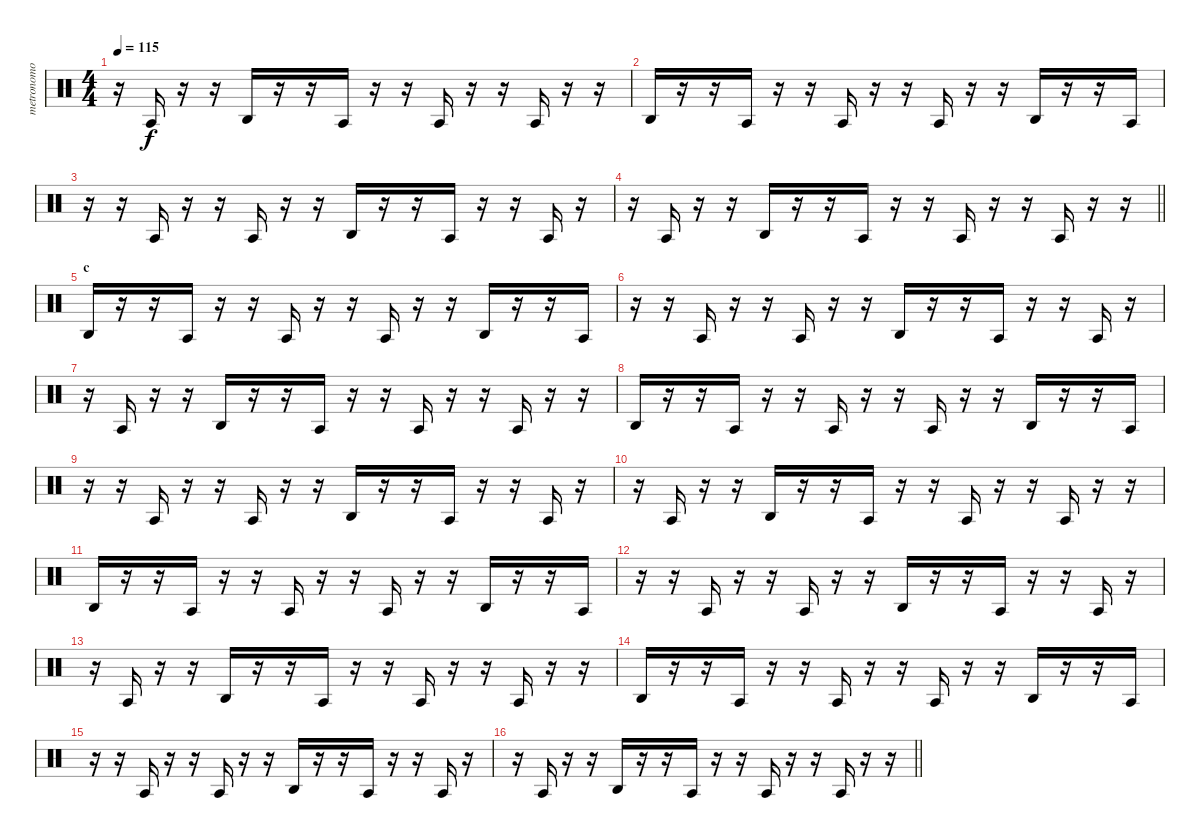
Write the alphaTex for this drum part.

\track ("metronomo" "metronomo") {instrument percussion}
\staff {score}
\articulation defaults
\ts (4 4)
\tempo 115
\clef neutral
\ks c
r.16{dy f} "Agogo tow (hit)".16 r.16 r.16 "Agogo high (hit)".16 r.16 r.16 "Agogo tow (hit)".16 r.16 r.16 "Agogo tow (hit)".16 r.16 r.16 "Agogo tow (hit)".16 r.16 r.16 |
"Agogo high (hit)".16 r.16 r.16 "Agogo tow (hit)".16 r.16 r.16 "Agogo tow (hit)".16 r.16 r.16 "Agogo tow (hit)".16 r.16 r.16 "Agogo high (hit)".16 r.16 r.16 "Agogo tow (hit)".16 |
r.16 r.16 "Agogo tow (hit)".16 r.16 r.16 "Agogo tow (hit)".16 r.16 r.16 "Agogo high (hit)".16 r.16 r.16 "Agogo tow (hit)".16 r.16 r.16 "Agogo tow (hit)".16 r.16 |
\barLineRight lightlight
r.16 "Agogo tow (hit)".16 r.16 r.16 "Agogo high (hit)".16 r.16 r.16 "Agogo tow (hit)".16 r.16 r.16 "Agogo tow (hit)".16 r.16 r.16 "Agogo tow (hit)".16 r.16 r.16 |
\section ("" "c")
"Agogo high (hit)".16 r.16 r.16 "Agogo tow (hit)".16 r.16 r.16 "Agogo tow (hit)".16 r.16 r.16 "Agogo tow (hit)".16 r.16 r.16 "Agogo high (hit)".16 r.16 r.16 "Agogo tow (hit)".16 |
r.16 r.16 "Agogo tow (hit)".16 r.16 r.16 "Agogo tow (hit)".16 r.16 r.16 "Agogo high (hit)".16 r.16 r.16 "Agogo tow (hit)".16 r.16 r.16 "Agogo tow (hit)".16 r.16 |
r.16 "Agogo tow (hit)".16 r.16 r.16 "Agogo high (hit)".16 r.16 r.16 "Agogo tow (hit)".16 r.16 r.16 "Agogo tow (hit)".16 r.16 r.16 "Agogo tow (hit)".16 r.16 r.16 |
"Agogo high (hit)".16 r.16 r.16 "Agogo tow (hit)".16 r.16 r.16 "Agogo tow (hit)".16 r.16 r.16 "Agogo tow (hit)".16 r.16 r.16 "Agogo high (hit)".16 r.16 r.16 "Agogo tow (hit)".16 |
r.16 r.16 "Agogo tow (hit)".16 r.16 r.16 "Agogo tow (hit)".16 r.16 r.16 "Agogo high (hit)".16 r.16 r.16 "Agogo tow (hit)".16 r.16 r.16 "Agogo tow (hit)".16 r.16 |
r.16 "Agogo tow (hit)".16 r.16 r.16 "Agogo high (hit)".16 r.16 r.16 "Agogo tow (hit)".16 r.16 r.16 "Agogo tow (hit)".16 r.16 r.16 "Agogo tow (hit)".16 r.16 r.16 |
"Agogo high (hit)".16 r.16 r.16 "Agogo tow (hit)".16 r.16 r.16 "Agogo tow (hit)".16 r.16 r.16 "Agogo tow (hit)".16 r.16 r.16 "Agogo high (hit)".16 r.16 r.16 "Agogo tow (hit)".16 |
r.16 r.16 "Agogo tow (hit)".16 r.16 r.16 "Agogo tow (hit)".16 r.16 r.16 "Agogo high (hit)".16 r.16 r.16 "Agogo tow (hit)".16 r.16 r.16 "Agogo tow (hit)".16 r.16 |
r.16 "Agogo tow (hit)".16 r.16 r.16 "Agogo high (hit)".16 r.16 r.16 "Agogo tow (hit)".16 r.16 r.16 "Agogo tow (hit)".16 r.16 r.16 "Agogo tow (hit)".16 r.16 r.16 |
"Agogo high (hit)".16 r.16 r.16 "Agogo tow (hit)".16 r.16 r.16 "Agogo tow (hit)".16 r.16 r.16 "Agogo tow (hit)".16 r.16 r.16 "Agogo high (hit)".16 r.16 r.16 "Agogo tow (hit)".16 |
r.16 r.16 "Agogo tow (hit)".16 r.16 r.16 "Agogo tow (hit)".16 r.16 r.16 "Agogo high (hit)".16 r.16 r.16 "Agogo tow (hit)".16 r.16 r.16 "Agogo tow (hit)".16 r.16 |
\barLineRight lightlight
r.16 "Agogo tow (hit)".16 r.16 r.16 "Agogo high (hit)".16 r.16 r.16 "Agogo tow (hit)".16 r.16 r.16 "Agogo tow (hit)".16 r.16 r.16 "Agogo tow (hit)".16 r.16 r.16
